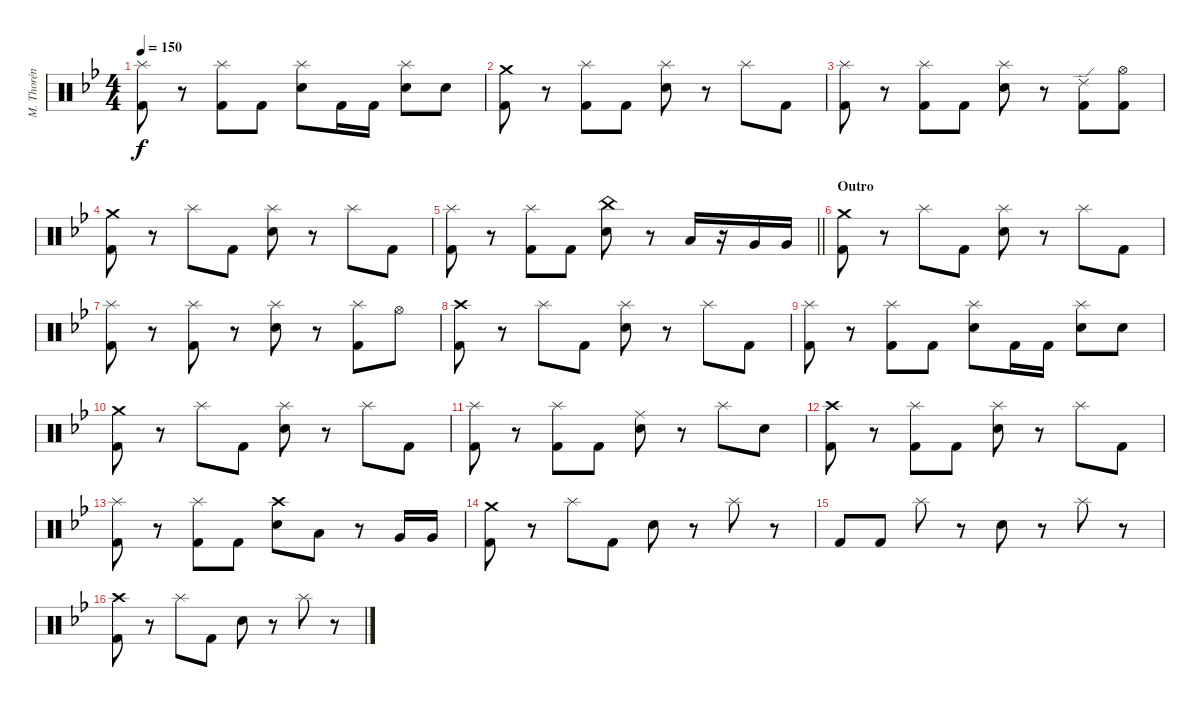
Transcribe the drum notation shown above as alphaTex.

\track ("M. Thorén (Drums)" "M. Thorén ") {instrument percussion}
\staff {score}
\articulation defaults
\ts (4 4)
\tempo 150
\clef neutral
\ks gminor
("Splash (hit)" "Kick (hit) 2").8{dy f} r.8 ("Splash (hit)" "Kick (hit) 2").8 "Kick (hit) 2".8 ("Splash (hit)" "Electric Snare (hit)").8 "Kick (hit) 2".16 "Kick (hit) 2".16 ("Splash (hit)" "Electric Snare (hit)").8 "Electric Snare (hit)".8 |
("Crash medium (hit)" "Kick (hit) 2").8 r.8 ("Splash (hit)" "Kick (hit) 2").8 "Kick (hit) 2".8 ("Splash (hit)" "Electric Snare (hit)").8 r.8 "Splash (hit)".8 "Kick (hit) 2".8 |
("Splash (hit)" "Kick (hit) 2").8 r.8 ("Splash (hit)" "Kick (hit) 2").8 "Kick (hit) 2".8 ("Splash (hit)" "Electric Snare (hit)").8 r.8 ("Ride (edge) 2" "Kick (hit) 2").8 ("Hi-Hat (open)" "Kick (hit) 2").8 |
("Crash medium (hit)" "Kick (hit) 2").8 r.8 "Splash (hit)".8 "Kick (hit) 2".8 ("Splash (hit)" "Electric Snare (hit)").8 r.8 "Splash (hit)".8 "Kick (hit) 2".8 |
\barLineRight lightlight
("Splash (hit)" "Kick (hit) 2").8 r.8 ("Splash (hit)" "Kick (hit) 2").8 "Kick (hit) 2".8 ("China (hit)" "Electric Snare (hit)").8 r.8 "Low Tom (hit)".16 r.16 "Very Low Tom (hit)".16 "Very Low Tom (hit)".16 |
\section ("" "Outro")
("Crash medium (hit)" "Kick (hit) 2").8 r.8 "Splash (hit)".8 "Kick (hit) 2".8 ("Splash (hit)" "Electric Snare (hit)").8 r.8 "Splash (hit)".8 "Kick (hit) 2".8 |
("Splash (hit)" "Kick (hit) 2").8 r.8 ("Splash (hit)" "Kick (hit) 2").8 r.8 ("Splash (hit)" "Electric Snare (hit)").8 r.8 ("Splash (hit)" "Kick (hit) 2").8 "Hi-Hat (open)".8 |
("Crash high (hit)" "Kick (hit) 2").8 r.8 "Splash (hit)".8 "Kick (hit) 2".8 ("Splash (hit)" "Electric Snare (hit)").8 r.8 "Splash (hit)".8 "Kick (hit) 2".8 |
("Splash (hit)" "Kick (hit) 2").8 r.8 ("Splash (hit)" "Kick (hit) 2").8 "Kick (hit) 2".8 ("Splash (hit)" "Electric Snare (hit)").8 "Kick (hit) 2".16 "Kick (hit) 2".16 ("Splash (hit)" "Electric Snare (hit)").8 "Electric Snare (hit)".8 |
("Crash medium (hit)" "Kick (hit) 2").8 r.8 "Splash (hit)".8 "Kick (hit) 2".8 ("Splash (hit)" "Electric Snare (hit)").8 r.8 "Splash (hit)".8 "Kick (hit) 2".8 |
("Splash (hit)" "Kick (hit) 2").8 r.8 ("Splash (hit)" "Kick (hit) 2").8 "Kick (hit) 2".8 ("Ride (middle)" "Electric Snare (hit)").8 r.8 "Splash (hit)".8 "Electric Snare (hit)".8 |
("Crash high (hit)" "Kick (hit) 2").8 r.8 ("Splash (hit)" "Kick (hit) 2").8 "Kick (hit) 2".8 ("Splash (hit)" "Electric Snare (hit)").8 r.8 "Splash (hit)".8 "Kick (hit) 2".8 |
("Splash (hit)" "Kick (hit) 2").8 r.8 ("Splash (hit)" "Kick (hit) 2").8 "Kick (hit) 2".8 ("Crash high (hit)" "Electric Snare (hit)").8 "Low Tom (hit)".8 r.8 "Very Low Tom (hit)".16 "Very Low Tom (hit)".16 |
("Crash medium (hit)" "Kick (hit) 2").8 r.8 "Splash (hit)".8 "Kick (hit) 2".8 "Electric Snare (hit)".8 r.8 "Splash (hit)".8 r.8 |
"Kick (hit) 2".8 "Kick (hit) 2".8 "Splash (hit)".8 r.8 "Electric Snare (hit)".8 r.8 "Splash (hit)".8 r.8 |
("Crash high (hit)" "Kick (hit) 2").8 r.8 "Splash (hit)".8 "Kick (hit) 2".8 "Electric Snare (hit)".8 r.8 "Splash (hit)".8 r.8
